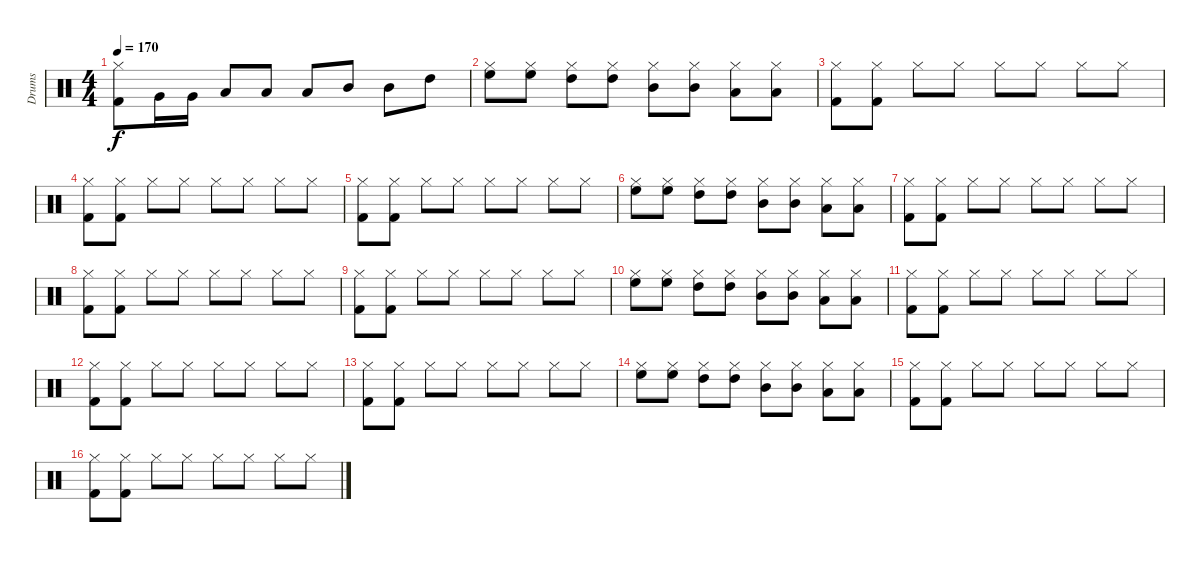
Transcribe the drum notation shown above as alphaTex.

\track ("Drums" "Drums") {instrument percussion}
\staff {score}
\articulation defaults
\ts (4 4)
\tempo 170
\clef neutral
\ks c
("Kick (hit) 2" "Hi-Hat (closed)").8{dy f} "Very Low Tom (hit)".16 "Very Low Tom (hit)".16 "Low Tom (hit)".8 "Low Tom (hit)".8 "Low Tom (hit)".8 "Mid Tom (hit)".8 "Mid Tom (hit)".8 "High Tom (hit)".8 |
("High Floor Tom (hit)" "Hi-Hat (closed)").8 ("High Floor Tom (hit)" "Hi-Hat (closed)").8 ("High Tom (hit)" "Hi-Hat (closed)").8 ("High Tom (hit)" "Hi-Hat (closed)").8 ("Mid Tom (hit)" "Hi-Hat (closed)").8 ("Mid Tom (hit)" "Hi-Hat (closed)").8 ("Low Tom (hit)" "Hi-Hat (closed)").8 ("Low Tom (hit)" "Hi-Hat (closed)").8 |
("Kick (hit) 2" "Hi-Hat (closed)").8 ("Kick (hit) 2" "Hi-Hat (closed)").8 "Hi-Hat (closed)".8 "Hi-Hat (closed)".8 "Hi-Hat (closed)".8 "Hi-Hat (closed)".8 "Hi-Hat (closed)".8 "Hi-Hat (closed)".8 |
("Kick (hit) 2" "Hi-Hat (closed)").8 ("Kick (hit) 2" "Hi-Hat (closed)").8 "Hi-Hat (closed)".8 "Hi-Hat (closed)".8 "Hi-Hat (closed)".8 "Hi-Hat (closed)".8 "Hi-Hat (closed)".8 "Hi-Hat (closed)".8 |
("Kick (hit) 2" "Hi-Hat (closed)").8 ("Kick (hit) 2" "Hi-Hat (closed)").8 "Hi-Hat (closed)".8 "Hi-Hat (closed)".8 "Hi-Hat (closed)".8 "Hi-Hat (closed)".8 "Hi-Hat (closed)".8 "Hi-Hat (closed)".8 |
("High Floor Tom (hit)" "Hi-Hat (closed)").8 ("High Floor Tom (hit)" "Hi-Hat (closed)").8 ("High Tom (hit)" "Hi-Hat (closed)").8 ("High Tom (hit)" "Hi-Hat (closed)").8 ("Mid Tom (hit)" "Hi-Hat (closed)").8 ("Mid Tom (hit)" "Hi-Hat (closed)").8 ("Low Tom (hit)" "Hi-Hat (closed)").8 ("Low Tom (hit)" "Hi-Hat (closed)").8 |
("Kick (hit) 2" "Hi-Hat (closed)").8 ("Kick (hit) 2" "Hi-Hat (closed)").8 "Hi-Hat (closed)".8 "Hi-Hat (closed)".8 "Hi-Hat (closed)".8 "Hi-Hat (closed)".8 "Hi-Hat (closed)".8 "Hi-Hat (closed)".8 |
("Kick (hit) 2" "Hi-Hat (closed)").8 ("Kick (hit) 2" "Hi-Hat (closed)").8 "Hi-Hat (closed)".8 "Hi-Hat (closed)".8 "Hi-Hat (closed)".8 "Hi-Hat (closed)".8 "Hi-Hat (closed)".8 "Hi-Hat (closed)".8 |
("Kick (hit) 2" "Hi-Hat (closed)").8 ("Kick (hit) 2" "Hi-Hat (closed)").8 "Hi-Hat (closed)".8 "Hi-Hat (closed)".8 "Hi-Hat (closed)".8 "Hi-Hat (closed)".8 "Hi-Hat (closed)".8 "Hi-Hat (closed)".8 |
("High Floor Tom (hit)" "Hi-Hat (closed)").8 ("High Floor Tom (hit)" "Hi-Hat (closed)").8 ("High Tom (hit)" "Hi-Hat (closed)").8 ("High Tom (hit)" "Hi-Hat (closed)").8 ("Mid Tom (hit)" "Hi-Hat (closed)").8 ("Mid Tom (hit)" "Hi-Hat (closed)").8 ("Low Tom (hit)" "Hi-Hat (closed)").8 ("Low Tom (hit)" "Hi-Hat (closed)").8 |
("Kick (hit) 2" "Hi-Hat (closed)").8 ("Kick (hit) 2" "Hi-Hat (closed)").8 "Hi-Hat (closed)".8 "Hi-Hat (closed)".8 "Hi-Hat (closed)".8 "Hi-Hat (closed)".8 "Hi-Hat (closed)".8 "Hi-Hat (closed)".8 |
("Kick (hit) 2" "Hi-Hat (closed)").8 ("Kick (hit) 2" "Hi-Hat (closed)").8 "Hi-Hat (closed)".8 "Hi-Hat (closed)".8 "Hi-Hat (closed)".8 "Hi-Hat (closed)".8 "Hi-Hat (closed)".8 "Hi-Hat (closed)".8 |
("Kick (hit) 2" "Hi-Hat (closed)").8 ("Kick (hit) 2" "Hi-Hat (closed)").8 "Hi-Hat (closed)".8 "Hi-Hat (closed)".8 "Hi-Hat (closed)".8 "Hi-Hat (closed)".8 "Hi-Hat (closed)".8 "Hi-Hat (closed)".8 |
("High Floor Tom (hit)" "Hi-Hat (closed)").8 ("High Floor Tom (hit)" "Hi-Hat (closed)").8 ("High Tom (hit)" "Hi-Hat (closed)").8 ("High Tom (hit)" "Hi-Hat (closed)").8 ("Mid Tom (hit)" "Hi-Hat (closed)").8 ("Mid Tom (hit)" "Hi-Hat (closed)").8 ("Low Tom (hit)" "Hi-Hat (closed)").8 ("Low Tom (hit)" "Hi-Hat (closed)").8 |
("Kick (hit) 2" "Hi-Hat (closed)").8 ("Kick (hit) 2" "Hi-Hat (closed)").8 "Hi-Hat (closed)".8 "Hi-Hat (closed)".8 "Hi-Hat (closed)".8 "Hi-Hat (closed)".8 "Hi-Hat (closed)".8 "Hi-Hat (closed)".8 |
("Kick (hit) 2" "Hi-Hat (closed)").8 ("Kick (hit) 2" "Hi-Hat (closed)").8 "Hi-Hat (closed)".8 "Hi-Hat (closed)".8 "Hi-Hat (closed)".8 "Hi-Hat (closed)".8 "Hi-Hat (closed)".8 "Hi-Hat (closed)".8
